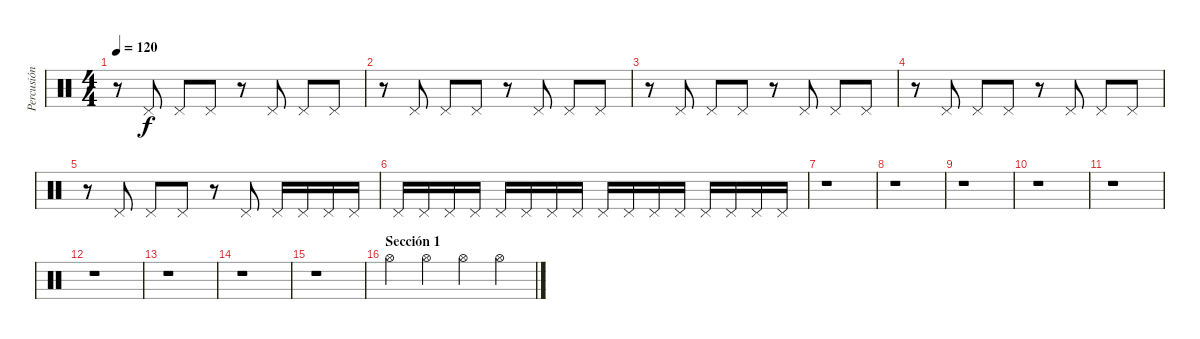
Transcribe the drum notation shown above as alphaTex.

\track ("Percusión" "Percusión") {instrument percussion}
\staff {score}
\articulation defaults
\ts (4 4)
\tempo 120
\clef neutral
\ks c
r.8{dy f} "Pedal Hi-Hat (hit)".8 "Pedal Hi-Hat (hit)".8 "Pedal Hi-Hat (hit)".8 r.8 "Pedal Hi-Hat (hit)".8 "Pedal Hi-Hat (hit)".8 "Pedal Hi-Hat (hit)".8 |
r.8 "Pedal Hi-Hat (hit)".8 "Pedal Hi-Hat (hit)".8 "Pedal Hi-Hat (hit)".8 r.8 "Pedal Hi-Hat (hit)".8 "Pedal Hi-Hat (hit)".8 "Pedal Hi-Hat (hit)".8 |
r.8 "Pedal Hi-Hat (hit)".8 "Pedal Hi-Hat (hit)".8 "Pedal Hi-Hat (hit)".8 r.8 "Pedal Hi-Hat (hit)".8 "Pedal Hi-Hat (hit)".8 "Pedal Hi-Hat (hit)".8 |
r.8 "Pedal Hi-Hat (hit)".8 "Pedal Hi-Hat (hit)".8 "Pedal Hi-Hat (hit)".8 r.8 "Pedal Hi-Hat (hit)".8 "Pedal Hi-Hat (hit)".8 "Pedal Hi-Hat (hit)".8 |
r.8 "Pedal Hi-Hat (hit)".8 "Pedal Hi-Hat (hit)".8 "Pedal Hi-Hat (hit)".8 r.8 "Pedal Hi-Hat (hit)".8 "Pedal Hi-Hat (hit)".16 "Pedal Hi-Hat (hit)".16 "Pedal Hi-Hat (hit)".16 "Pedal Hi-Hat (hit)".16 |
"Pedal Hi-Hat (hit)".16 "Pedal Hi-Hat (hit)".16 "Pedal Hi-Hat (hit)".16 "Pedal Hi-Hat (hit)".16 "Pedal Hi-Hat (hit)".16 "Pedal Hi-Hat (hit)".16 "Pedal Hi-Hat (hit)".16 "Pedal Hi-Hat (hit)".16 "Pedal Hi-Hat (hit)".16 "Pedal Hi-Hat (hit)".16 "Pedal Hi-Hat (hit)".16 "Pedal Hi-Hat (hit)".16 "Pedal Hi-Hat (hit)".16 "Pedal Hi-Hat (hit)".16 "Pedal Hi-Hat (hit)".16 "Pedal Hi-Hat (hit)".16 |
r.1 |
r.1 |
r.1 |
r.1 |
r.1 |
r.1 |
r.1 |
r.1 |
r.1 |
\section ("" "Sección 1")
"Hi-Hat (open)".4 "Hi-Hat (open)".4 "Hi-Hat (open)".4 "Hi-Hat (open)".4
